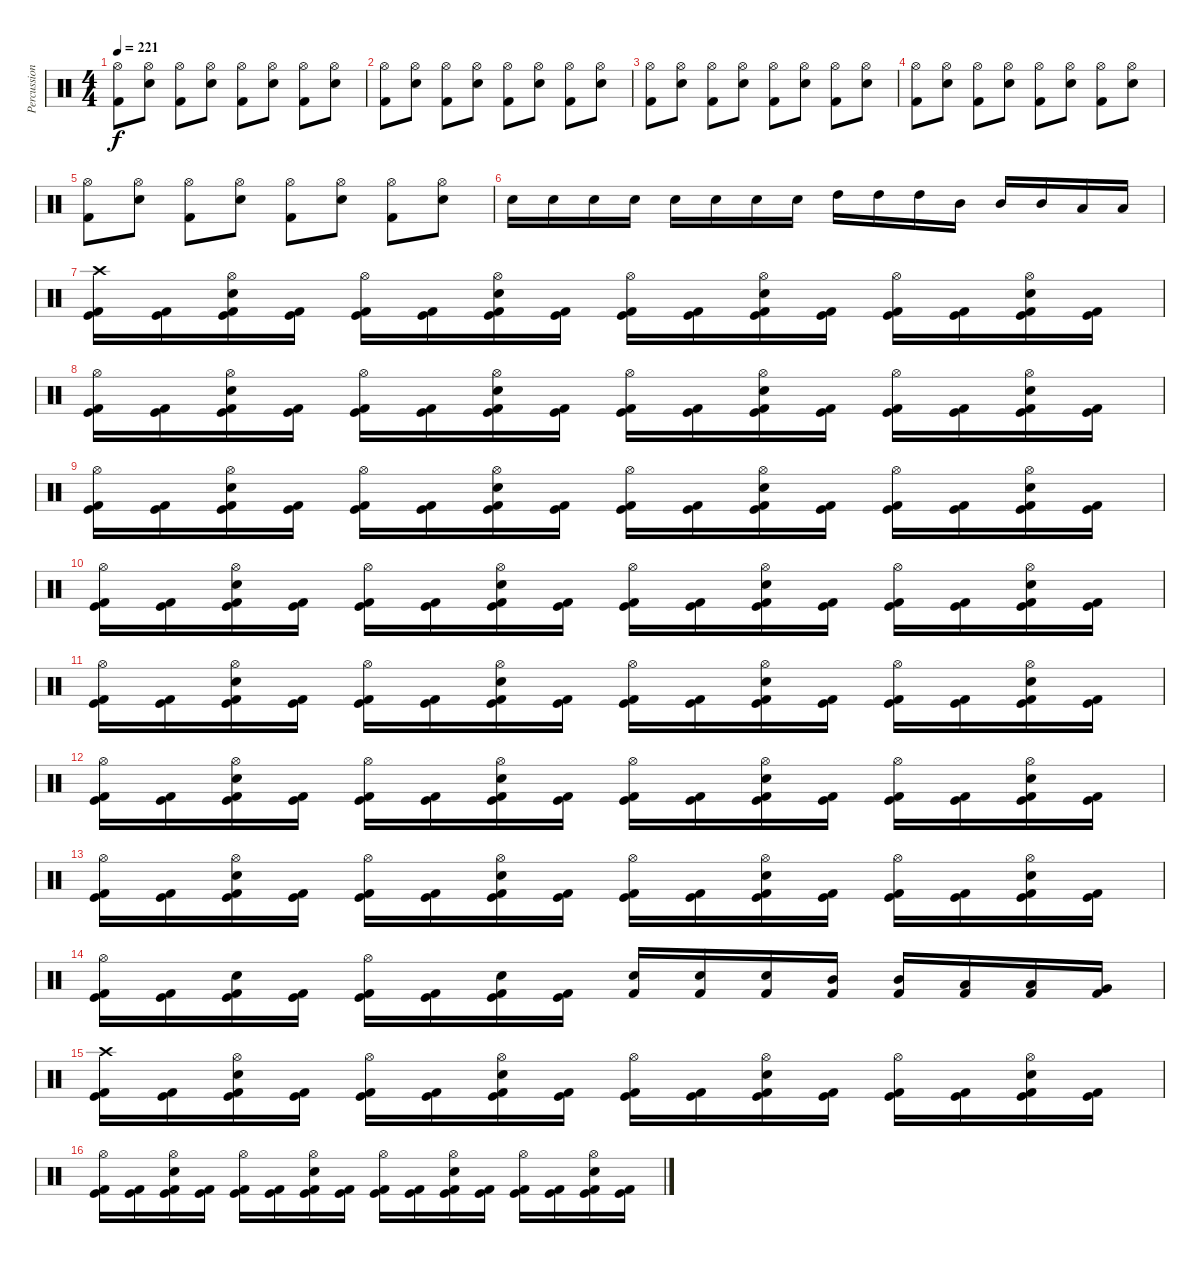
\track ("Percussion" "Percussion") {instrument percussion}
\staff {score}
\articulation defaults
\ts (4 4)
\tempo 221
\clef neutral
\ks c
("Hi-Hat (open)" "Kick (hit) 2").8{dy f} ("Hi-Hat (open)" "Electric Snare (hit)").8 ("Hi-Hat (open)" "Kick (hit) 2").8 ("Hi-Hat (open)" "Electric Snare (hit)").8 ("Hi-Hat (open)" "Kick (hit) 2").8 ("Hi-Hat (open)" "Electric Snare (hit)").8 ("Hi-Hat (open)" "Kick (hit) 2").8 ("Hi-Hat (open)" "Electric Snare (hit)").8 |
("Hi-Hat (open)" "Kick (hit) 2").8 ("Hi-Hat (open)" "Electric Snare (hit)").8 ("Hi-Hat (open)" "Kick (hit) 2").8 ("Hi-Hat (open)" "Electric Snare (hit)").8 ("Hi-Hat (open)" "Kick (hit) 2").8 ("Hi-Hat (open)" "Electric Snare (hit)").8 ("Hi-Hat (open)" "Kick (hit) 2").8 ("Hi-Hat (open)" "Electric Snare (hit)").8 |
("Hi-Hat (open)" "Kick (hit) 2").8 ("Hi-Hat (open)" "Electric Snare (hit)").8 ("Hi-Hat (open)" "Kick (hit) 2").8 ("Hi-Hat (open)" "Electric Snare (hit)").8 ("Hi-Hat (open)" "Kick (hit) 2").8 ("Hi-Hat (open)" "Electric Snare (hit)").8 ("Hi-Hat (open)" "Kick (hit) 2").8 ("Hi-Hat (open)" "Electric Snare (hit)").8 |
("Hi-Hat (open)" "Kick (hit) 2").8 ("Hi-Hat (open)" "Electric Snare (hit)").8 ("Hi-Hat (open)" "Kick (hit) 2").8 ("Hi-Hat (open)" "Electric Snare (hit)").8 ("Hi-Hat (open)" "Kick (hit) 2").8 ("Hi-Hat (open)" "Electric Snare (hit)").8 ("Hi-Hat (open)" "Kick (hit) 2").8 ("Hi-Hat (open)" "Electric Snare (hit)").8 |
("Hi-Hat (open)" "Kick (hit) 2").8 ("Hi-Hat (open)" "Electric Snare (hit)").8 ("Hi-Hat (open)" "Kick (hit) 2").8 ("Hi-Hat (open)" "Electric Snare (hit)").8 ("Hi-Hat (open)" "Kick (hit) 2").8 ("Hi-Hat (open)" "Electric Snare (hit)").8 ("Hi-Hat (open)" "Kick (hit) 2").8 ("Hi-Hat (open)" "Electric Snare (hit)").8 |
"Electric Snare (hit)".16 "Electric Snare (hit)".16 "Electric Snare (hit)".16 "Electric Snare (hit)".16 "Electric Snare (hit)".16 "Electric Snare (hit)".16 "Electric Snare (hit)".16 "Electric Snare (hit)".16 "High Tom (hit)".16 "High Tom (hit)".16 "High Tom (hit)".16 "Mid Tom (hit)".16 "Mid Tom (hit)".16 "Mid Tom (hit)".16 "Low Tom (hit)".16 "Low Tom (hit)".16 |
("Crash high (hit)" "Kick (hit)" "Kick (hit) 2").16 ("Kick (hit)" "Kick (hit) 2").16 ("Hi-Hat (open)" "Electric Snare (hit)" "Kick (hit)" "Kick (hit) 2").16 ("Kick (hit)" "Kick (hit) 2").16 ("Hi-Hat (open)" "Kick (hit)" "Kick (hit) 2").16 ("Kick (hit)" "Kick (hit) 2").16 ("Hi-Hat (open)" "Electric Snare (hit)" "Kick (hit)" "Kick (hit) 2").16 ("Kick (hit)" "Kick (hit) 2").16 ("Hi-Hat (open)" "Kick (hit)" "Kick (hit) 2").16 ("Kick (hit)" "Kick (hit) 2").16 ("Hi-Hat (open)" "Electric Snare (hit)" "Kick (hit)" "Kick (hit) 2").16 ("Kick (hit)" "Kick (hit) 2").16 ("Hi-Hat (open)" "Kick (hit)" "Kick (hit) 2").16 ("Kick (hit)" "Kick (hit) 2").16 ("Hi-Hat (open)" "Electric Snare (hit)" "Kick (hit)" "Kick (hit) 2").16 ("Kick (hit)" "Kick (hit) 2").16 |
("Hi-Hat (open)" "Kick (hit)" "Kick (hit) 2").16 ("Kick (hit)" "Kick (hit) 2").16 ("Hi-Hat (open)" "Electric Snare (hit)" "Kick (hit)" "Kick (hit) 2").16 ("Kick (hit)" "Kick (hit) 2").16 ("Hi-Hat (open)" "Kick (hit)" "Kick (hit) 2").16 ("Kick (hit)" "Kick (hit) 2").16 ("Hi-Hat (open)" "Electric Snare (hit)" "Kick (hit)" "Kick (hit) 2").16 ("Kick (hit)" "Kick (hit) 2").16 ("Hi-Hat (open)" "Kick (hit)" "Kick (hit) 2").16 ("Kick (hit)" "Kick (hit) 2").16 ("Hi-Hat (open)" "Electric Snare (hit)" "Kick (hit)" "Kick (hit) 2").16 ("Kick (hit)" "Kick (hit) 2").16 ("Hi-Hat (open)" "Kick (hit)" "Kick (hit) 2").16 ("Kick (hit)" "Kick (hit) 2").16 ("Hi-Hat (open)" "Electric Snare (hit)" "Kick (hit)" "Kick (hit) 2").16 ("Kick (hit)" "Kick (hit) 2").16 |
("Hi-Hat (open)" "Kick (hit)" "Kick (hit) 2").16 ("Kick (hit)" "Kick (hit) 2").16 ("Hi-Hat (open)" "Electric Snare (hit)" "Kick (hit)" "Kick (hit) 2").16 ("Kick (hit)" "Kick (hit) 2").16 ("Hi-Hat (open)" "Kick (hit)" "Kick (hit) 2").16 ("Kick (hit)" "Kick (hit) 2").16 ("Hi-Hat (open)" "Electric Snare (hit)" "Kick (hit)" "Kick (hit) 2").16 ("Kick (hit)" "Kick (hit) 2").16 ("Hi-Hat (open)" "Kick (hit)" "Kick (hit) 2").16 ("Kick (hit)" "Kick (hit) 2").16 ("Hi-Hat (open)" "Electric Snare (hit)" "Kick (hit)" "Kick (hit) 2").16 ("Kick (hit)" "Kick (hit) 2").16 ("Hi-Hat (open)" "Kick (hit)" "Kick (hit) 2").16 ("Kick (hit)" "Kick (hit) 2").16 ("Hi-Hat (open)" "Electric Snare (hit)" "Kick (hit)" "Kick (hit) 2").16 ("Kick (hit)" "Kick (hit) 2").16 |
("Hi-Hat (open)" "Kick (hit)" "Kick (hit) 2").16 ("Kick (hit)" "Kick (hit) 2").16 ("Hi-Hat (open)" "Electric Snare (hit)" "Kick (hit)" "Kick (hit) 2").16 ("Kick (hit)" "Kick (hit) 2").16 ("Hi-Hat (open)" "Kick (hit)" "Kick (hit) 2").16 ("Kick (hit)" "Kick (hit) 2").16 ("Hi-Hat (open)" "Electric Snare (hit)" "Kick (hit)" "Kick (hit) 2").16 ("Kick (hit)" "Kick (hit) 2").16 ("Hi-Hat (open)" "Kick (hit)" "Kick (hit) 2").16 ("Kick (hit)" "Kick (hit) 2").16 ("Hi-Hat (open)" "Electric Snare (hit)" "Kick (hit)" "Kick (hit) 2").16 ("Kick (hit)" "Kick (hit) 2").16 ("Hi-Hat (open)" "Kick (hit)" "Kick (hit) 2").16 ("Kick (hit)" "Kick (hit) 2").16 ("Hi-Hat (open)" "Electric Snare (hit)" "Kick (hit)" "Kick (hit) 2").16 ("Kick (hit)" "Kick (hit) 2").16 |
("Hi-Hat (open)" "Kick (hit)" "Kick (hit) 2").16 ("Kick (hit)" "Kick (hit) 2").16 ("Hi-Hat (open)" "Electric Snare (hit)" "Kick (hit)" "Kick (hit) 2").16 ("Kick (hit)" "Kick (hit) 2").16 ("Hi-Hat (open)" "Kick (hit)" "Kick (hit) 2").16 ("Kick (hit)" "Kick (hit) 2").16 ("Hi-Hat (open)" "Electric Snare (hit)" "Kick (hit)" "Kick (hit) 2").16 ("Kick (hit)" "Kick (hit) 2").16 ("Hi-Hat (open)" "Kick (hit)" "Kick (hit) 2").16 ("Kick (hit)" "Kick (hit) 2").16 ("Hi-Hat (open)" "Electric Snare (hit)" "Kick (hit)" "Kick (hit) 2").16 ("Kick (hit)" "Kick (hit) 2").16 ("Hi-Hat (open)" "Kick (hit)" "Kick (hit) 2").16 ("Kick (hit)" "Kick (hit) 2").16 ("Hi-Hat (open)" "Electric Snare (hit)" "Kick (hit)" "Kick (hit) 2").16 ("Kick (hit)" "Kick (hit) 2").16 |
("Hi-Hat (open)" "Kick (hit)" "Kick (hit) 2").16 ("Kick (hit)" "Kick (hit) 2").16 ("Hi-Hat (open)" "Electric Snare (hit)" "Kick (hit)" "Kick (hit) 2").16 ("Kick (hit)" "Kick (hit) 2").16 ("Hi-Hat (open)" "Kick (hit)" "Kick (hit) 2").16 ("Kick (hit)" "Kick (hit) 2").16 ("Hi-Hat (open)" "Electric Snare (hit)" "Kick (hit)" "Kick (hit) 2").16 ("Kick (hit)" "Kick (hit) 2").16 ("Hi-Hat (open)" "Kick (hit)" "Kick (hit) 2").16 ("Kick (hit)" "Kick (hit) 2").16 ("Hi-Hat (open)" "Electric Snare (hit)" "Kick (hit)" "Kick (hit) 2").16 ("Kick (hit)" "Kick (hit) 2").16 ("Hi-Hat (open)" "Kick (hit)" "Kick (hit) 2").16 ("Kick (hit)" "Kick (hit) 2").16 ("Hi-Hat (open)" "Electric Snare (hit)" "Kick (hit)" "Kick (hit) 2").16 ("Kick (hit)" "Kick (hit) 2").16 |
("Hi-Hat (open)" "Kick (hit)" "Kick (hit) 2").16 ("Kick (hit)" "Kick (hit) 2").16 ("Hi-Hat (open)" "Electric Snare (hit)" "Kick (hit)" "Kick (hit) 2").16 ("Kick (hit)" "Kick (hit) 2").16 ("Hi-Hat (open)" "Kick (hit)" "Kick (hit) 2").16 ("Kick (hit)" "Kick (hit) 2").16 ("Hi-Hat (open)" "Electric Snare (hit)" "Kick (hit)" "Kick (hit) 2").16 ("Kick (hit)" "Kick (hit) 2").16 ("Hi-Hat (open)" "Kick (hit)" "Kick (hit) 2").16 ("Kick (hit)" "Kick (hit) 2").16 ("Hi-Hat (open)" "Electric Snare (hit)" "Kick (hit)" "Kick (hit) 2").16 ("Kick (hit)" "Kick (hit) 2").16 ("Hi-Hat (open)" "Kick (hit)" "Kick (hit) 2").16 ("Kick (hit)" "Kick (hit) 2").16 ("Hi-Hat (open)" "Electric Snare (hit)" "Kick (hit)" "Kick (hit) 2").16 ("Kick (hit)" "Kick (hit) 2").16 |
("Hi-Hat (open)" "Kick (hit)" "Kick (hit) 2").16 ("Kick (hit)" "Kick (hit) 2").16 ("Electric Snare (hit)" "Kick (hit)" "Kick (hit) 2").16 ("Kick (hit)" "Kick (hit) 2").16 ("Hi-Hat (open)" "Kick (hit)" "Kick (hit) 2").16 ("Kick (hit)" "Kick (hit) 2").16 ("Electric Snare (hit)" "Kick (hit)" "Kick (hit) 2").16 ("Kick (hit)" "Kick (hit) 2").16 ("Electric Snare (hit)" "Kick (hit) 2").16 ("Electric Snare (hit)" "Kick (hit) 2").16 ("Electric Snare (hit)" "Kick (hit) 2").16 ("Mid Tom (hit)" "Kick (hit) 2").16 ("Mid Tom (hit)" "Kick (hit) 2").16 ("Low Tom (hit)" "Kick (hit) 2").16 ("Low Tom (hit)" "Kick (hit) 2").16 ("Very Low Tom (hit)" "Kick (hit) 2").16 |
("Crash high (hit)" "Kick (hit)" "Kick (hit) 2").16 ("Kick (hit)" "Kick (hit) 2").16 ("Hi-Hat (open)" "Electric Snare (hit)" "Kick (hit)" "Kick (hit) 2").16 ("Kick (hit)" "Kick (hit) 2").16 ("Hi-Hat (open)" "Kick (hit)" "Kick (hit) 2").16 ("Kick (hit)" "Kick (hit) 2").16 ("Hi-Hat (open)" "Electric Snare (hit)" "Kick (hit)" "Kick (hit) 2").16 ("Kick (hit)" "Kick (hit) 2").16 ("Hi-Hat (open)" "Kick (hit)" "Kick (hit) 2").16 ("Kick (hit)" "Kick (hit) 2").16 ("Hi-Hat (open)" "Electric Snare (hit)" "Kick (hit)" "Kick (hit) 2").16 ("Kick (hit)" "Kick (hit) 2").16 ("Hi-Hat (open)" "Kick (hit)" "Kick (hit) 2").16 ("Kick (hit)" "Kick (hit) 2").16 ("Hi-Hat (open)" "Electric Snare (hit)" "Kick (hit)" "Kick (hit) 2").16 ("Kick (hit)" "Kick (hit) 2").16 |
("Hi-Hat (open)" "Kick (hit)" "Kick (hit) 2").16 ("Kick (hit)" "Kick (hit) 2").16 ("Hi-Hat (open)" "Electric Snare (hit)" "Kick (hit)" "Kick (hit) 2").16 ("Kick (hit)" "Kick (hit) 2").16 ("Hi-Hat (open)" "Kick (hit)" "Kick (hit) 2").16 ("Kick (hit)" "Kick (hit) 2").16 ("Hi-Hat (open)" "Electric Snare (hit)" "Kick (hit)" "Kick (hit) 2").16 ("Kick (hit)" "Kick (hit) 2").16 ("Hi-Hat (open)" "Kick (hit)" "Kick (hit) 2").16 ("Kick (hit)" "Kick (hit) 2").16 ("Hi-Hat (open)" "Electric Snare (hit)" "Kick (hit)" "Kick (hit) 2").16 ("Kick (hit)" "Kick (hit) 2").16 ("Hi-Hat (open)" "Kick (hit)" "Kick (hit) 2").16 ("Kick (hit)" "Kick (hit) 2").16 ("Hi-Hat (open)" "Electric Snare (hit)" "Kick (hit)" "Kick (hit) 2").16 ("Kick (hit)" "Kick (hit) 2").16
